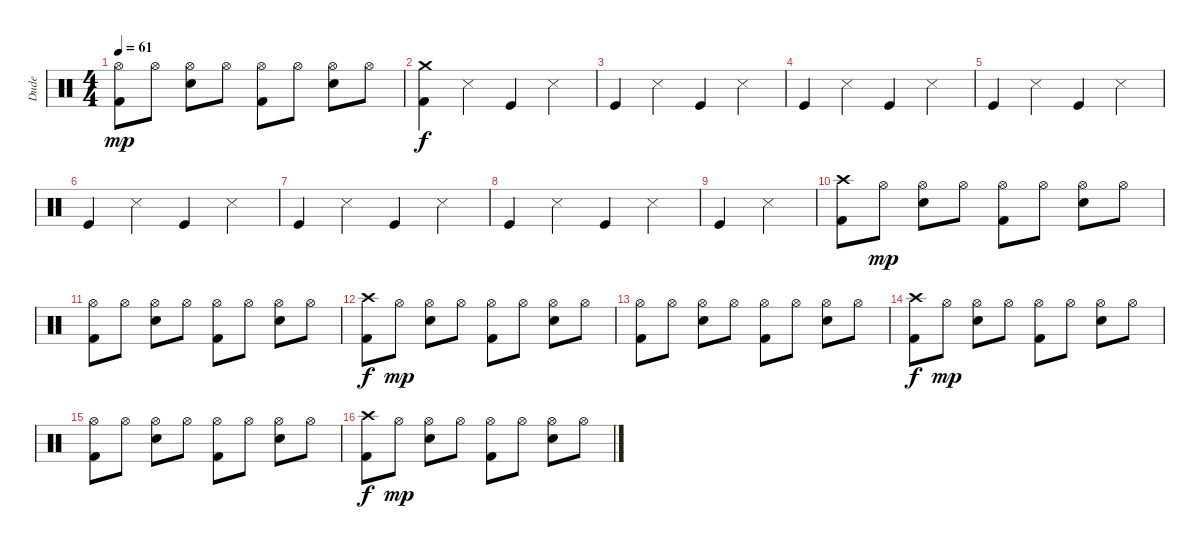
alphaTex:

\track ("Dude" "Dude") {instrument percussion}
\staff {score}
\articulation defaults
\ts (4 4)
\tempo 61
\clef neutral
\ks c
("Kick (hit) 2" "Hi-Hat (open)").8{dy mp} "Hi-Hat (open)".8 ("Electric Snare (hit)" "Hi-Hat (open)").8 "Hi-Hat (open)".8 ("Kick (hit) 2" "Hi-Hat (open)").8 "Hi-Hat (open)".8 ("Electric Snare (hit)" "Hi-Hat (open)").8 "Hi-Hat (open)".8 |
("Kick (hit) 2" "Crash medium (hit)").4{dy f} "Snare (side stick) 3".4 "Kick (hit)".4 "Snare (side stick) 3".4 |
"Kick (hit)".4 "Snare (side stick) 3".4 "Kick (hit)".4 "Snare (side stick) 3".4 |
"Kick (hit)".4 "Snare (side stick) 3".4 "Kick (hit)".4 "Snare (side stick) 3".4 |
"Kick (hit)".4 "Snare (side stick) 3".4 "Kick (hit)".4 "Snare (side stick) 3".4 |
"Kick (hit)".4 "Snare (side stick) 3".4 "Kick (hit)".4 "Snare (side stick) 3".4 |
"Kick (hit)".4 "Snare (side stick) 3".4 "Kick (hit)".4 "Snare (side stick) 3".4 |
"Kick (hit)".4 "Snare (side stick) 3".4 "Kick (hit)".4 "Snare (side stick) 3".4 |
"Kick (hit)".4 "Snare (side stick) 3".4 |
("Kick (hit) 2" "Crash high (hit)").8 "Hi-Hat (open)".8{dy mp} ("Electric Snare (hit)" "Hi-Hat (open)").8 "Hi-Hat (open)".8 ("Kick (hit) 2" "Hi-Hat (open)").8 "Hi-Hat (open)".8 ("Electric Snare (hit)" "Hi-Hat (open)").8 "Hi-Hat (open)".8 |
("Kick (hit) 2" "Hi-Hat (open)").8 "Hi-Hat (open)".8 ("Electric Snare (hit)" "Hi-Hat (open)").8 "Hi-Hat (open)".8 ("Kick (hit) 2" "Hi-Hat (open)").8 "Hi-Hat (open)".8 ("Electric Snare (hit)" "Hi-Hat (open)").8 "Hi-Hat (open)".8 |
("Kick (hit) 2" "Crash high (hit)").8{dy f} "Hi-Hat (open)".8{dy mp} ("Electric Snare (hit)" "Hi-Hat (open)").8 "Hi-Hat (open)".8 ("Kick (hit) 2" "Hi-Hat (open)").8 "Hi-Hat (open)".8 ("Electric Snare (hit)" "Hi-Hat (open)").8 "Hi-Hat (open)".8 |
("Kick (hit) 2" "Hi-Hat (open)").8 "Hi-Hat (open)".8 ("Electric Snare (hit)" "Hi-Hat (open)").8 "Hi-Hat (open)".8 ("Kick (hit) 2" "Hi-Hat (open)").8 "Hi-Hat (open)".8 ("Electric Snare (hit)" "Hi-Hat (open)").8 "Hi-Hat (open)".8 |
("Kick (hit) 2" "Crash high (hit)").8{dy f} "Hi-Hat (open)".8{dy mp} ("Electric Snare (hit)" "Hi-Hat (open)").8 "Hi-Hat (open)".8 ("Kick (hit) 2" "Hi-Hat (open)").8 "Hi-Hat (open)".8 ("Electric Snare (hit)" "Hi-Hat (open)").8 "Hi-Hat (open)".8 |
("Kick (hit) 2" "Hi-Hat (open)").8 "Hi-Hat (open)".8 ("Electric Snare (hit)" "Hi-Hat (open)").8 "Hi-Hat (open)".8 ("Kick (hit) 2" "Hi-Hat (open)").8 "Hi-Hat (open)".8 ("Electric Snare (hit)" "Hi-Hat (open)").8 "Hi-Hat (open)".8 |
("Kick (hit) 2" "Crash high (hit)").8{dy f} "Hi-Hat (open)".8{dy mp} ("Electric Snare (hit)" "Hi-Hat (open)").8 "Hi-Hat (open)".8 ("Kick (hit) 2" "Hi-Hat (open)").8 "Hi-Hat (open)".8 ("Electric Snare (hit)" "Hi-Hat (open)").8 "Hi-Hat (open)".8
